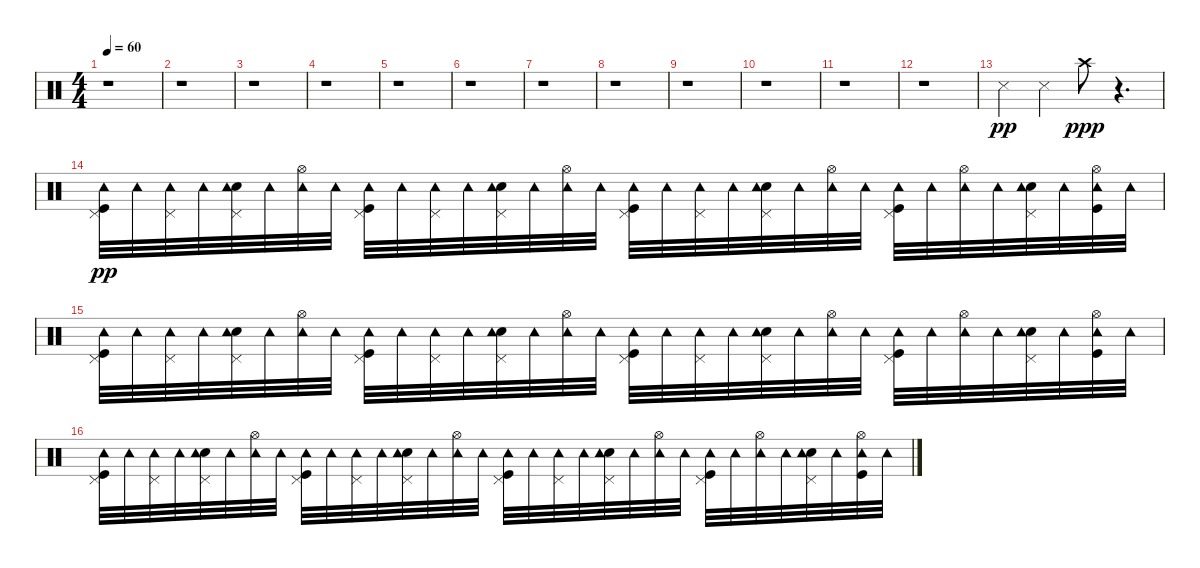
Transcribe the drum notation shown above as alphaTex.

\track "" {instrument percussion}
\staff {score}
\articulation defaults
\ts (4 4)
\tempo 60
\clef neutral
\ks c
r.1{dy pp} |
r.1 |
r.1 |
r.1 |
r.1 |
r.1 |
r.1 |
r.1 |
r.1 |
r.1 |
r.1 |
r.1 |
"Snare (side stick) 3".4 "Snare (side stick) 3".4 "Crash high (hit)".8{dy ppp} r.4{d} |
("Kick (hit)" "Pedal Hi-Hat (hit)" "Tambourine (hit)").32{dy pp} "Tambourine (hit)".32 ("Pedal Hi-Hat (hit)" "Tambourine (hit)").32 "Tambourine (hit)".32 ("Snare (hit) 2" "Pedal Hi-Hat (hit)" "Tambourine (hit)").32 "Tambourine (hit)".32 ("Hi-Hat (open)" "Tambourine (hit)").32 "Tambourine (hit)".32 ("Kick (hit)" "Pedal Hi-Hat (hit)" "Tambourine (hit)").32 "Tambourine (hit)".32 ("Pedal Hi-Hat (hit)" "Tambourine (hit)").32 "Tambourine (hit)".32 ("Snare (hit) 2" "Pedal Hi-Hat (hit)" "Tambourine (hit)").32 "Tambourine (hit)".32 ("Hi-Hat (open)" "Tambourine (hit)").32 "Tambourine (hit)".32 ("Kick (hit)" "Pedal Hi-Hat (hit)" "Tambourine (hit)").32 "Tambourine (hit)".32 ("Pedal Hi-Hat (hit)" "Tambourine (hit)").32 "Tambourine (hit)".32 ("Snare (hit) 2" "Pedal Hi-Hat (hit)" "Tambourine (hit)").32 "Tambourine (hit)".32 ("Hi-Hat (open)" "Tambourine (hit)").32 "Tambourine (hit)".32 ("Kick (hit)" "Pedal Hi-Hat (hit)" "Tambourine (hit)").32 "Tambourine (hit)".32 ("Hi-Hat (open)" "Tambourine (hit)").32 "Tambourine (hit)".32 ("Snare (hit) 2" "Pedal Hi-Hat (hit)" "Tambourine (hit)").32 "Tambourine (hit)".32 ("Kick (hit)" "Hi-Hat (open)" "Tambourine (hit)").32 "Tambourine (hit)".32 |
("Kick (hit)" "Pedal Hi-Hat (hit)" "Tambourine (hit)").32 "Tambourine (hit)".32 ("Pedal Hi-Hat (hit)" "Tambourine (hit)").32 "Tambourine (hit)".32 ("Snare (hit) 2" "Pedal Hi-Hat (hit)" "Tambourine (hit)").32 "Tambourine (hit)".32 ("Hi-Hat (open)" "Tambourine (hit)").32 "Tambourine (hit)".32 ("Kick (hit)" "Pedal Hi-Hat (hit)" "Tambourine (hit)").32 "Tambourine (hit)".32 ("Pedal Hi-Hat (hit)" "Tambourine (hit)").32 "Tambourine (hit)".32 ("Snare (hit) 2" "Pedal Hi-Hat (hit)" "Tambourine (hit)").32 "Tambourine (hit)".32 ("Hi-Hat (open)" "Tambourine (hit)").32 "Tambourine (hit)".32 ("Kick (hit)" "Pedal Hi-Hat (hit)" "Tambourine (hit)").32 "Tambourine (hit)".32 ("Pedal Hi-Hat (hit)" "Tambourine (hit)").32 "Tambourine (hit)".32 ("Snare (hit) 2" "Pedal Hi-Hat (hit)" "Tambourine (hit)").32 "Tambourine (hit)".32 ("Hi-Hat (open)" "Tambourine (hit)").32 "Tambourine (hit)".32 ("Kick (hit)" "Pedal Hi-Hat (hit)" "Tambourine (hit)").32 "Tambourine (hit)".32 ("Hi-Hat (open)" "Tambourine (hit)").32 "Tambourine (hit)".32 ("Snare (hit) 2" "Pedal Hi-Hat (hit)" "Tambourine (hit)").32 "Tambourine (hit)".32 ("Kick (hit)" "Hi-Hat (open)" "Tambourine (hit)").32 "Tambourine (hit)".32 |
("Kick (hit)" "Pedal Hi-Hat (hit)" "Tambourine (hit)").32 "Tambourine (hit)".32 ("Pedal Hi-Hat (hit)" "Tambourine (hit)").32 "Tambourine (hit)".32 ("Snare (hit) 2" "Pedal Hi-Hat (hit)" "Tambourine (hit)").32 "Tambourine (hit)".32 ("Hi-Hat (open)" "Tambourine (hit)").32 "Tambourine (hit)".32 ("Kick (hit)" "Pedal Hi-Hat (hit)" "Tambourine (hit)").32 "Tambourine (hit)".32 ("Pedal Hi-Hat (hit)" "Tambourine (hit)").32 "Tambourine (hit)".32 ("Snare (hit) 2" "Pedal Hi-Hat (hit)" "Tambourine (hit)").32 "Tambourine (hit)".32 ("Hi-Hat (open)" "Tambourine (hit)").32 "Tambourine (hit)".32 ("Kick (hit)" "Pedal Hi-Hat (hit)" "Tambourine (hit)").32 "Tambourine (hit)".32 ("Pedal Hi-Hat (hit)" "Tambourine (hit)").32 "Tambourine (hit)".32 ("Snare (hit) 2" "Pedal Hi-Hat (hit)" "Tambourine (hit)").32 "Tambourine (hit)".32 ("Hi-Hat (open)" "Tambourine (hit)").32 "Tambourine (hit)".32 ("Kick (hit)" "Pedal Hi-Hat (hit)" "Tambourine (hit)").32 "Tambourine (hit)".32 ("Hi-Hat (open)" "Tambourine (hit)").32 "Tambourine (hit)".32 ("Snare (hit) 2" "Pedal Hi-Hat (hit)" "Tambourine (hit)").32 "Tambourine (hit)".32 ("Kick (hit)" "Hi-Hat (open)" "Tambourine (hit)").32 "Tambourine (hit)".32
